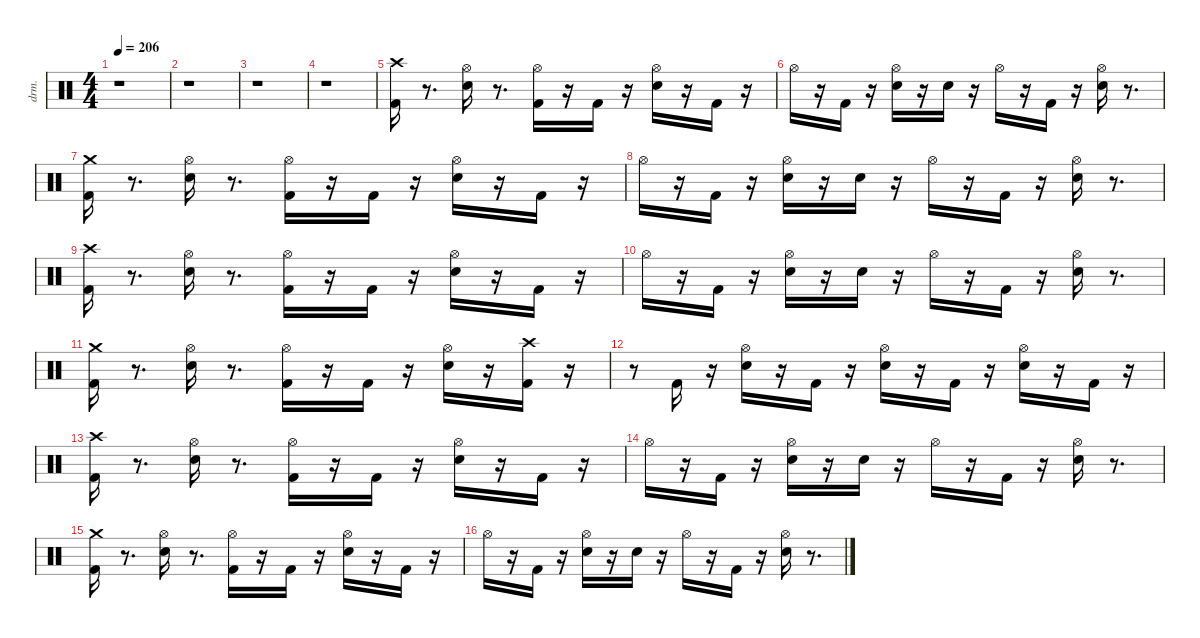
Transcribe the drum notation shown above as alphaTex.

\defaultSystemsLayout 4
\hideDynamics
\bracketExtendMode nobrackets
\otherSystemsTrackNameOrientation horizontal
\track ("EZdrummer 3" "drm.") {instrument percussion}
\staff {score}
\articulation defaults
\ts (4 4)
\tempo 206
\clef neutral
\ks c
r.1{dy ff beam Down} |
r.1{beam Down} |
r.1{beam Down} |
r.1{beam Down} |
("Kick (hit) 2" "Crash high (hit)"{acc #}).16{beam Down} r.8{d beam Down} ("Snare (hit) 2" "Hi-Hat (open)"{acc #}).16{beam Down} r.8{d beam Down} ("Kick (hit) 2" "Hi-Hat (open)"{acc #}).16{dy f beam Down} r.16{beam Down} "Kick (hit) 2".16{dy ff beam Down} r.16{beam Down} ("Snare (hit) 2" "Hi-Hat (open)"{acc #}).16{beam Down} r.16{beam Down} "Kick (hit) 2".16{beam Down} r.16{beam Down} |
"Hi-Hat (open)"{acc #}.16{dy fff beam Down} r.16{beam Down} "Kick (hit) 2".16{dy ff beam Down} r.16{beam Down} ("Snare (hit) 2" "Hi-Hat (open)"{acc #}).16{beam Down} r.16{beam Down} "Snare (hit) 2".16{dy p beam Down} r.16{beam Down} "Hi-Hat (open)"{acc #}.16{dy ff beam Down} r.16{beam Down} "Kick (hit) 2".16{beam Down} r.16{beam Down} ("Snare (hit) 2" "Hi-Hat (open)"{acc #}).16{beam Down} r.8{d beam Down} |
("Kick (hit) 2" "Crash medium (hit)").16{beam Down} r.8{d beam Down} ("Snare (hit) 2" "Hi-Hat (open)"{acc #}).16{beam Down} r.8{d beam Down} ("Kick (hit) 2" "Hi-Hat (open)"{acc #}).16{dy mf beam Down} r.16{beam Down} "Kick (hit) 2".16{dy ff beam Down} r.16{beam Down} ("Snare (hit) 2" "Hi-Hat (open)"{acc #}).16{beam Down} r.16{beam Down} "Kick (hit) 2".16{beam Down} r.16{beam Down} |
"Hi-Hat (open)"{acc #}.16{dy fff beam Down} r.16{beam Down} "Kick (hit) 2".16{dy ff beam Down} r.16{beam Down} ("Snare (hit) 2" "Hi-Hat (open)"{acc #}).16{beam Down} r.16{beam Down} "Snare (hit) 2".16{dy p beam Down} r.16{beam Down} "Hi-Hat (open)"{acc #}.16{dy ff beam Down} r.16{beam Down} "Kick (hit) 2".16{beam Down} r.16{beam Down} ("Snare (hit) 2" "Hi-Hat (open)"{acc #}).16{beam Down} r.8{d beam Down} |
("Kick (hit) 2" "Crash high (hit)"{acc #}).16{beam Down} r.8{d beam Down} ("Snare (hit) 2" "Hi-Hat (open)"{acc #}).16{beam Down} r.8{d beam Down} ("Kick (hit) 2" "Hi-Hat (open)"{acc #}).16{dy f beam Down} r.16{beam Down} "Kick (hit) 2".16{dy ff beam Down} r.16{beam Down} ("Snare (hit) 2" "Hi-Hat (open)"{acc #}).16{beam Down} r.16{beam Down} "Kick (hit) 2".16{beam Down} r.16{beam Down} |
\ks aminor "Hi-Hat (open)"{acc #}.16{dy fff beam Down}
r.16{beam Down} "Kick (hit) 2".16{dy ff beam Down} r.16{beam Down} ("Snare (hit) 2" "Hi-Hat (open)"{acc #}).16{beam Down} r.16{beam Down} "Snare (hit) 2".16{dy p beam Down} r.16{beam Down} "Hi-Hat (open)"{acc #}.16{dy ff beam Down} r.16{beam Down} "Kick (hit) 2".16{beam Down} r.16{beam Down} ("Snare (hit) 2" "Hi-Hat (open)"{acc #}).16{beam Down} r.8{d beam Down} |
("Kick (hit) 2" "Crash medium (hit)").16{beam Down} r.8{d beam Down} ("Snare (hit) 2" "Hi-Hat (open)"{acc #}).16{beam Down} r.8{d beam Down} ("Kick (hit) 2" "Hi-Hat (open)"{acc #}).16{dy f beam Down} r.16{beam Down} "Kick (hit) 2".16{dy ff beam Down} r.16{beam Down} ("Snare (hit) 2" "Hi-Hat (open)"{acc #}).16{beam Down} r.16{beam Down} ("Kick (hit) 2" "Crash high (hit)"{acc #}).16{beam Down} r.16{beam Down} |
r.8{beam Down} "Kick (hit) 2".16{beam Up} r.16{beam Up} ("Snare (hit) 2" "Hi-Hat (open)"{acc #}).16{beam Down} r.16{beam Down} "Kick (hit) 2".16{beam Down} r.16{beam Down} ("Snare (hit) 2" "Hi-Hat (open)"{acc #}).16{beam Down} r.16{beam Down} "Kick (hit) 2".16{beam Down} r.16{beam Down} ("Snare (hit) 2" "Hi-Hat (open)"{acc #}).16{beam Down} r.16{beam Down} "Kick (hit) 2".16{dy pp beam Down} r.16{beam Down} |
("Kick (hit) 2" "Crash high (hit)"{acc #}).16{dy ff beam Down} r.8{d beam Down} ("Snare (hit) 2" "Hi-Hat (open)"{acc #}).16{beam Down} r.8{d beam Down} ("Kick (hit) 2" "Hi-Hat (open)"{acc #}).16{dy f beam Down} r.16{beam Down} "Kick (hit) 2".16{dy ff beam Down} r.16{beam Down} ("Snare (hit) 2" "Hi-Hat (open)"{acc #}).16{beam Down} r.16{beam Down} "Kick (hit) 2".16{beam Down} r.16{beam Down} |
"Hi-Hat (open)"{acc #}.16{dy fff beam Down} r.16{beam Down} "Kick (hit) 2".16{dy ff beam Down} r.16{beam Down} ("Snare (hit) 2" "Hi-Hat (open)"{acc #}).16{beam Down} r.16{beam Down} "Snare (hit) 2".16{dy p beam Down} r.16{beam Down} "Hi-Hat (open)"{acc #}.16{dy ff beam Down} r.16{beam Down} "Kick (hit) 2".16{beam Down} r.16{beam Down} ("Snare (hit) 2" "Hi-Hat (open)"{acc #}).16{beam Down} r.8{d beam Down} |
("Kick (hit) 2" "Crash medium (hit)").16{beam Down} r.8{d beam Down} ("Snare (hit) 2" "Hi-Hat (open)"{acc #}).16{beam Down} r.8{d beam Down} ("Kick (hit) 2" "Hi-Hat (open)"{acc #}).16{dy mf beam Down} r.16{beam Down} "Kick (hit) 2".16{dy ff beam Down} r.16{beam Down} ("Snare (hit) 2" "Hi-Hat (open)"{acc #}).16{beam Down} r.16{beam Down} "Kick (hit) 2".16{beam Down} r.16{beam Down} |
"Hi-Hat (open)"{acc #}.16{dy fff beam Down} r.16{beam Down} "Kick (hit) 2".16{dy ff beam Down} r.16{beam Down} ("Snare (hit) 2" "Hi-Hat (open)"{acc #}).16{beam Down} r.16{beam Down} "Snare (hit) 2".16{dy p beam Down} r.16{beam Down} "Hi-Hat (open)"{acc #}.16{dy ff beam Down} r.16{beam Down} "Kick (hit) 2".16{beam Down} r.16{beam Down} ("Snare (hit) 2" "Hi-Hat (open)"{acc #}).16{beam Down} r.8{d beam Down}
